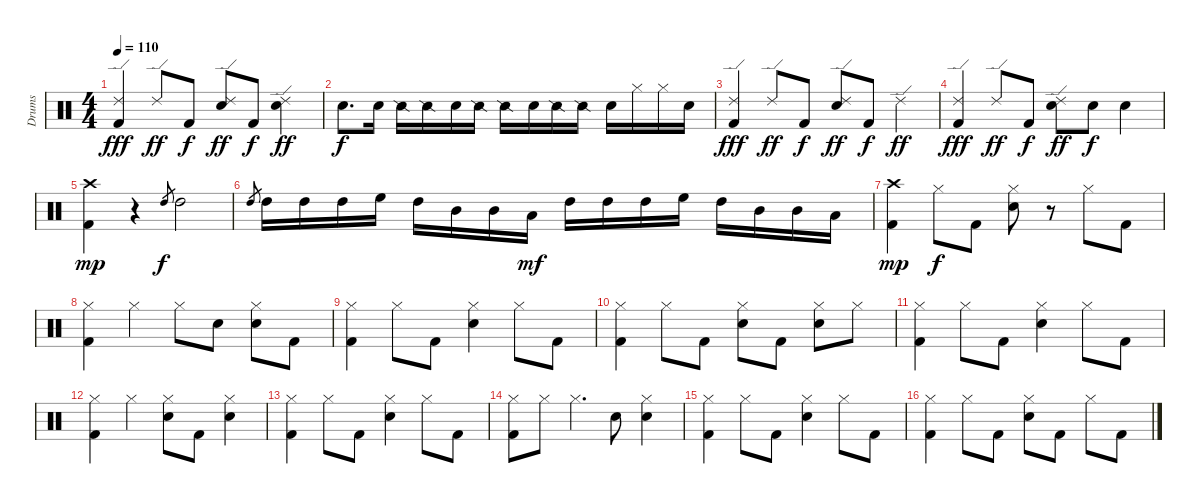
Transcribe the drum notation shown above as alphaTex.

\track ("Drums" "Drums") {instrument percussion}
\staff {score}
\articulation defaults
\ts (4 4)
\tempo 110
\clef neutral
\ks c
("Ride (edge) 2" "Kick (hit) 2").4{dy fff} "Ride (edge) 2".8{dy ff} "Kick (hit) 2".8{dy f} ("Ride (edge) 2" "Snare (hit) 2").8{dy ff} "Kick (hit) 2".8{dy f} ("Ride (edge) 2" "Snare (hit) 2").4{dy ff} |
"Snare (hit) 2".8{d dy f} "Snare (hit) 2".16 "Snare (side stick) 2".16 "Snare (side stick) 2".16 "Snare (hit) 2".16 "Snare (side stick) 2".16 "Snare (side stick) 2".16 "Snare (hit) 2".16 "Snare (side stick) 2".16 "Snare (side stick) 2".16 "Snare (hit) 2".16 "Hi-Hat (closed)".16 "Hi-Hat (closed)".16 "Snare (hit) 2".16 |
("Ride (edge) 2" "Kick (hit) 2").4{dy fff} "Ride (edge) 2".8{dy ff} "Kick (hit) 2".8{dy f} ("Ride (edge) 2" "Snare (hit) 2").8{dy ff} "Kick (hit) 2".8{dy f} "Ride (edge) 2".4{dy ff} |
("Ride (edge) 2" "Kick (hit) 2").4{dy fff} "Ride (edge) 2".8{dy ff} "Kick (hit) 2".8{dy f} ("Ride (edge) 2" "Snare (hit) 2").8{dy ff} "Snare (hit) 2".8{dy f} "Snare (hit) 2".4 |
("Crash high (hit)" "Kick (hit) 2").4{dy mp} r.4 "High Tom (hit)".8{gr dy f} "High Tom (hit)".2 |
"High Tom (hit)".8{gr} "High Tom (hit)".16 "High Tom (hit)".16 "High Tom (hit)".16 "High Floor Tom (hit)".16 "High Tom (hit)".16 "Mid Tom (hit)".16 "Mid Tom (hit)".16 "Low Tom (hit)".16{dy mf} "High Tom (hit)".16 "High Tom (hit)".16 "High Tom (hit)".16 "High Floor Tom (hit)".16 "High Tom (hit)".16 "Mid Tom (hit)".16 "Mid Tom (hit)".16 "Low Tom (hit)".16 |
("Crash high (hit)" "Kick (hit) 2").4{dy mp} "Hi-Hat (closed)".8{dy f} "Kick (hit) 2".8 ("Hi-Hat (closed)" "Snare (hit) 2").8 r.8 "Hi-Hat (closed)".8 "Kick (hit) 2".8 |
("Hi-Hat (closed)" "Kick (hit) 2").4 "Hi-Hat (closed)".4 "Hi-Hat (closed)".8 "Snare (hit) 2".8 ("Hi-Hat (closed)" "Snare (hit) 2").8 "Kick (hit) 2".8 |
("Hi-Hat (closed)" "Kick (hit) 2").4 "Hi-Hat (closed)".8 "Kick (hit) 2".8 ("Hi-Hat (closed)" "Snare (hit) 2").4 "Hi-Hat (closed)".8 "Kick (hit) 2".8 |
("Hi-Hat (closed)" "Kick (hit) 2").4 "Hi-Hat (closed)".8 "Kick (hit) 2".8 ("Hi-Hat (closed)" "Snare (hit) 2").8 "Kick (hit) 2".8 ("Hi-Hat (closed)" "Snare (hit) 2").8 "Hi-Hat (closed)".8 |
("Hi-Hat (closed)" "Kick (hit) 2").4 "Hi-Hat (closed)".8 "Kick (hit) 2".8 ("Hi-Hat (closed)" "Snare (hit) 2").4 "Hi-Hat (closed)".8 "Kick (hit) 2".8 |
("Hi-Hat (closed)" "Kick (hit) 2").4 "Hi-Hat (closed)".4 ("Hi-Hat (closed)" "Snare (hit) 2").8 "Kick (hit) 2".8 ("Hi-Hat (closed)" "Snare (hit) 2").4 |
("Hi-Hat (closed)" "Kick (hit) 2").4 "Hi-Hat (closed)".8 "Kick (hit) 2".8 ("Hi-Hat (closed)" "Snare (hit) 2").4 "Hi-Hat (closed)".8 "Kick (hit) 2".8 |
("Hi-Hat (closed)" "Kick (hit) 2").8 "Hi-Hat (closed)".8 "Hi-Hat (closed)".4{d} "Snare (hit) 2".8 ("Hi-Hat (closed)" "Snare (hit) 2").4 |
("Hi-Hat (closed)" "Kick (hit) 2").4 "Hi-Hat (closed)".8 "Kick (hit) 2".8 ("Hi-Hat (closed)" "Snare (hit) 2").4 "Hi-Hat (closed)".8 "Kick (hit) 2".8 |
("Hi-Hat (closed)" "Kick (hit) 2").4 "Hi-Hat (closed)".8 "Kick (hit) 2".8 ("Hi-Hat (closed)" "Snare (hit) 2").8 "Kick (hit) 2".8 "Hi-Hat (closed)".8 "Kick (hit) 2".8
